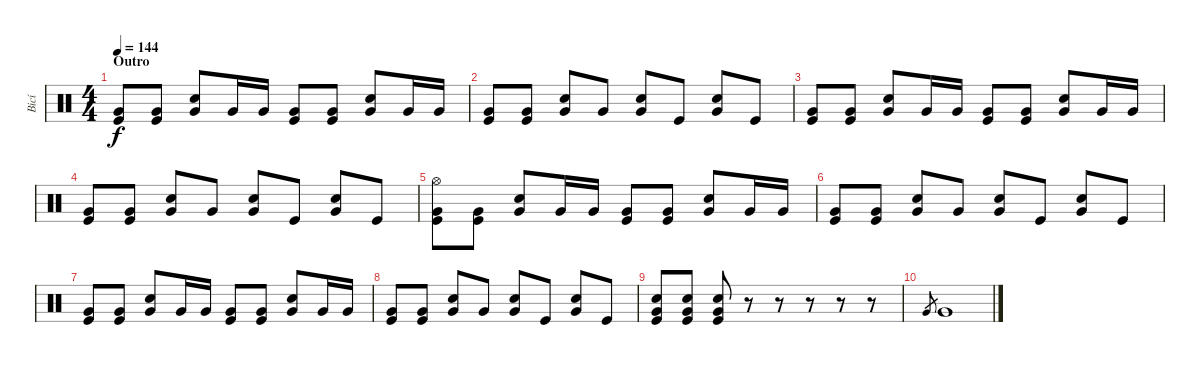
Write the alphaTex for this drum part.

\track ("Bicí" "Bicí") {instrument percussion}
\staff
\articulation defaults
\ts (4 4)
\section ("" "Outro")
\tempo 144
\clef neutral
\ks c
("Very Low Tom (hit)" "Kick (hit)").8{dy f} ("Very Low Tom (hit)" "Kick (hit)").8 ("Very Low Tom (hit)" "Electric Snare (hit)").8 "Very Low Tom (hit)".16 "Very Low Tom (hit)".16 ("Very Low Tom (hit)" "Kick (hit)").8 ("Very Low Tom (hit)" "Kick (hit)").8 ("Very Low Tom (hit)" "Electric Snare (hit)").8 "Very Low Tom (hit)".16 "Very Low Tom (hit)".16 |
("Very Low Tom (hit)" "Kick (hit)").8 ("Very Low Tom (hit)" "Kick (hit)").8 ("Very Low Tom (hit)" "Electric Snare (hit)").8 "Very Low Tom (hit)".8 ("Very Low Tom (hit)" "Electric Snare (hit)").8 "Kick (hit)".8 ("Very Low Tom (hit)" "Electric Snare (hit)").8 "Kick (hit)".8 |
("Very Low Tom (hit)" "Kick (hit)").8 ("Very Low Tom (hit)" "Kick (hit)").8 ("Very Low Tom (hit)" "Electric Snare (hit)").8 "Very Low Tom (hit)".16 "Very Low Tom (hit)".16 ("Very Low Tom (hit)" "Kick (hit)").8 ("Very Low Tom (hit)" "Kick (hit)").8 ("Very Low Tom (hit)" "Electric Snare (hit)").8 "Very Low Tom (hit)".16 "Very Low Tom (hit)".16 |
("Very Low Tom (hit)" "Kick (hit)").8 ("Very Low Tom (hit)" "Kick (hit)").8 ("Very Low Tom (hit)" "Electric Snare (hit)").8 "Very Low Tom (hit)".8 ("Very Low Tom (hit)" "Electric Snare (hit)").8 "Kick (hit)".8 ("Very Low Tom (hit)" "Electric Snare (hit)").8 "Kick (hit)".8 |
("Very Low Tom (hit)" "Hi-Hat (open)" "Kick (hit)").8 ("Very Low Tom (hit)" "Kick (hit)").8 ("Very Low Tom (hit)" "Electric Snare (hit)").8 "Very Low Tom (hit)".16 "Very Low Tom (hit)".16 ("Very Low Tom (hit)" "Kick (hit)").8 ("Very Low Tom (hit)" "Kick (hit)").8 ("Very Low Tom (hit)" "Electric Snare (hit)").8 "Very Low Tom (hit)".16 "Very Low Tom (hit)".16 |
("Very Low Tom (hit)" "Kick (hit)").8 ("Very Low Tom (hit)" "Kick (hit)").8 ("Very Low Tom (hit)" "Electric Snare (hit)").8 "Very Low Tom (hit)".8 ("Very Low Tom (hit)" "Electric Snare (hit)").8 "Kick (hit)".8 ("Very Low Tom (hit)" "Electric Snare (hit)").8 "Kick (hit)".8 |
("Very Low Tom (hit)" "Kick (hit)").8 ("Very Low Tom (hit)" "Kick (hit)").8 ("Very Low Tom (hit)" "Electric Snare (hit)").8 "Very Low Tom (hit)".16 "Very Low Tom (hit)".16 ("Very Low Tom (hit)" "Kick (hit)").8 ("Very Low Tom (hit)" "Kick (hit)").8 ("Very Low Tom (hit)" "Electric Snare (hit)").8 "Very Low Tom (hit)".16 "Very Low Tom (hit)".16 |
("Very Low Tom (hit)" "Kick (hit)").8 ("Very Low Tom (hit)" "Kick (hit)").8 ("Very Low Tom (hit)" "Electric Snare (hit)").8 "Very Low Tom (hit)".8 ("Very Low Tom (hit)" "Electric Snare (hit)").8 "Kick (hit)".8 ("Very Low Tom (hit)" "Electric Snare (hit)").8 "Kick (hit)".8 |
("Very Low Tom (hit)" "Electric Snare (hit)" "Kick (hit)").8 ("Very Low Tom (hit)" "Electric Snare (hit)" "Kick (hit)").8 ("Very Low Tom (hit)" "Electric Snare (hit)" "Kick (hit)").8 r.8 r.8 r.8 r.8 r.8 |
"Very Low Tom (hit)".8{gr} "Very Low Tom (hit)".1
